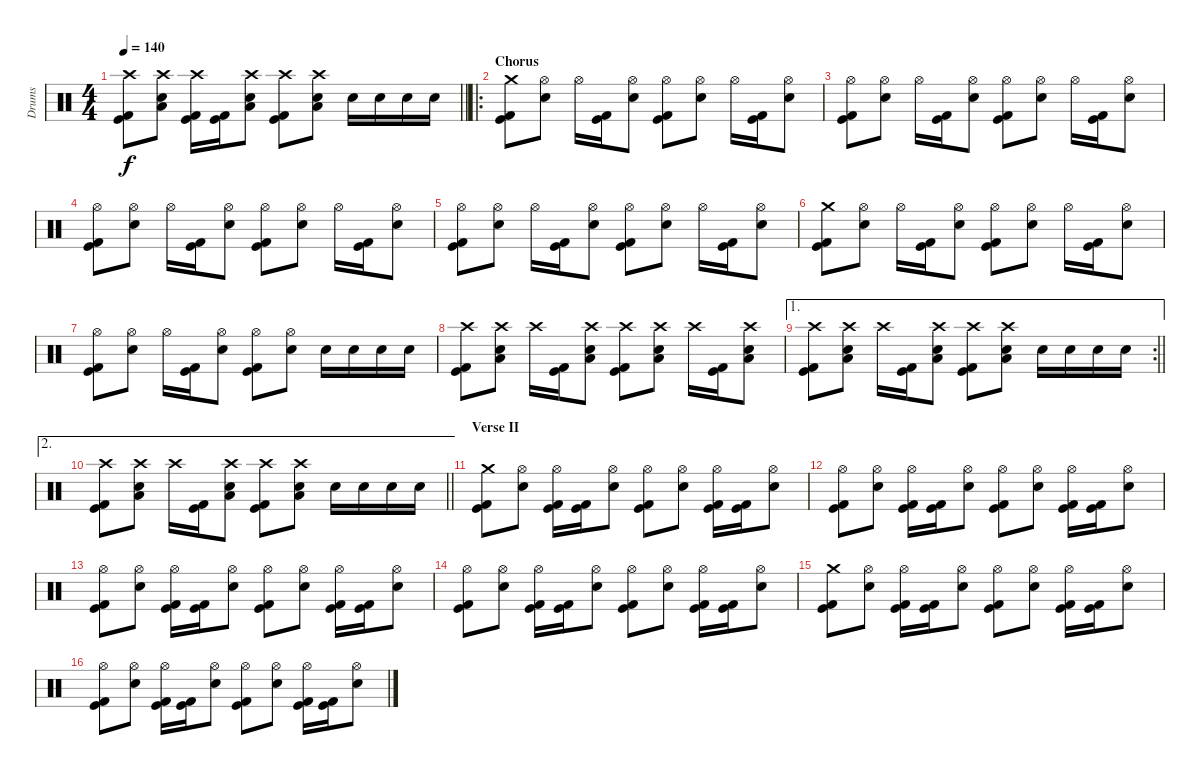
\track ("Drums" "Drums") {instrument percussion}
\staff {score}
\articulation defaults
\ts (4 4)
\tempo 140
\clef neutral
\barLineRight lightlight
\ks c
("Crash high (hit)" "Kick (hit)" "Kick (hit) 2").8{dy f} ("Crash high (hit)" "Electric Snare (hit)" "Low Floor Tom (hit)").8 ("Crash high (hit)" "Kick (hit)" "Kick (hit) 2").16 ("Kick (hit)" "Kick (hit) 2").16 ("Crash high (hit)" "Electric Snare (hit)" "Low Floor Tom (hit)").8 ("Crash high (hit)" "Kick (hit)" "Kick (hit) 2").8 ("Crash high (hit)" "Electric Snare (hit)" "Low Floor Tom (hit)").8 "Electric Snare (hit)".16 "Electric Snare (hit)".16 "Electric Snare (hit)".16 "Electric Snare (hit)".16 |
\ro
\section ("" "Chorus")
("Crash medium (hit)" "Kick (hit)" "Kick (hit) 2").8 ("Hi-Hat (open)" "Electric Snare (hit)").8 "Hi-Hat (open)".16 ("Kick (hit)" "Kick (hit) 2").16 ("Hi-Hat (open)" "Electric Snare (hit)").8 ("Hi-Hat (open)" "Kick (hit)" "Kick (hit) 2").8 ("Hi-Hat (open)" "Electric Snare (hit)").8 "Hi-Hat (open)".16 ("Kick (hit)" "Kick (hit) 2").16 ("Hi-Hat (open)" "Electric Snare (hit)").8 |
("Hi-Hat (open)" "Kick (hit)" "Kick (hit) 2").8 ("Hi-Hat (open)" "Electric Snare (hit)").8 "Hi-Hat (open)".16 ("Kick (hit)" "Kick (hit) 2").16 ("Hi-Hat (open)" "Electric Snare (hit)").8 ("Hi-Hat (open)" "Kick (hit)" "Kick (hit) 2").8 ("Hi-Hat (open)" "Electric Snare (hit)").8 "Hi-Hat (open)".16 ("Kick (hit)" "Kick (hit) 2").16 ("Hi-Hat (open)" "Electric Snare (hit)").8 |
("Hi-Hat (open)" "Kick (hit)" "Kick (hit) 2").8 ("Hi-Hat (open)" "Electric Snare (hit)").8 "Hi-Hat (open)".16 ("Kick (hit)" "Kick (hit) 2").16 ("Hi-Hat (open)" "Electric Snare (hit)").8 ("Hi-Hat (open)" "Kick (hit)" "Kick (hit) 2").8 ("Hi-Hat (open)" "Electric Snare (hit)").8 "Hi-Hat (open)".16 ("Kick (hit)" "Kick (hit) 2").16 ("Hi-Hat (open)" "Electric Snare (hit)").8 |
("Hi-Hat (open)" "Kick (hit)" "Kick (hit) 2").8 ("Hi-Hat (open)" "Electric Snare (hit)").8 "Hi-Hat (open)".16 ("Kick (hit)" "Kick (hit) 2").16 ("Hi-Hat (open)" "Electric Snare (hit)").8 ("Hi-Hat (open)" "Kick (hit)" "Kick (hit) 2").8 ("Hi-Hat (open)" "Electric Snare (hit)").8 "Hi-Hat (open)".16 ("Kick (hit)" "Kick (hit) 2").16 ("Hi-Hat (open)" "Electric Snare (hit)").8 |
("Crash medium (hit)" "Kick (hit)" "Kick (hit) 2").8 ("Hi-Hat (open)" "Electric Snare (hit)").8 "Hi-Hat (open)".16 ("Kick (hit)" "Kick (hit) 2").16 ("Hi-Hat (open)" "Electric Snare (hit)").8 ("Hi-Hat (open)" "Kick (hit)" "Kick (hit) 2").8 ("Hi-Hat (open)" "Electric Snare (hit)").8 "Hi-Hat (open)".16 ("Kick (hit)" "Kick (hit) 2").16 ("Hi-Hat (open)" "Electric Snare (hit)").8 |
("Hi-Hat (open)" "Kick (hit)" "Kick (hit) 2").8 ("Hi-Hat (open)" "Electric Snare (hit)").8 "Hi-Hat (open)".16 ("Kick (hit)" "Kick (hit) 2").16 ("Hi-Hat (open)" "Electric Snare (hit)").8 ("Hi-Hat (open)" "Kick (hit)" "Kick (hit) 2").8 ("Hi-Hat (open)" "Electric Snare (hit)").8 "Electric Snare (hit)".16 "Electric Snare (hit)".16 "Electric Snare (hit)".16 "Electric Snare (hit)".16 |
("Crash high (hit)" "Kick (hit)" "Kick (hit) 2").8 ("Crash high (hit)" "Electric Snare (hit)" "Low Floor Tom (hit)").8 "Crash high (hit)".16 ("Kick (hit)" "Kick (hit) 2").16 ("Crash high (hit)" "Electric Snare (hit)" "Low Floor Tom (hit)").8 ("Crash high (hit)" "Kick (hit)" "Kick (hit) 2").8 ("Crash high (hit)" "Electric Snare (hit)" "Low Floor Tom (hit)").8 "Crash high (hit)".16 ("Kick (hit)" "Kick (hit) 2").16 ("Crash high (hit)" "Electric Snare (hit)" "Low Floor Tom (hit)").8 |
\ae 1
\rc 2
\barLineRight lightlight
("Crash high (hit)" "Kick (hit)" "Kick (hit) 2").8 ("Crash high (hit)" "Electric Snare (hit)" "Low Floor Tom (hit)").8 "Crash high (hit)".16 ("Kick (hit)" "Kick (hit) 2").16 ("Crash high (hit)" "Electric Snare (hit)" "Low Floor Tom (hit)").8 ("Crash high (hit)" "Kick (hit)" "Kick (hit) 2").8 ("Crash high (hit)" "Electric Snare (hit)" "Low Floor Tom (hit)").8 "Electric Snare (hit)".16 "Electric Snare (hit)".16 "Electric Snare (hit)".16 "Electric Snare (hit)".16 |
\ae 2
\barLineRight lightlight
("Crash high (hit)" "Kick (hit)" "Kick (hit) 2").8 ("Crash high (hit)" "Electric Snare (hit)" "Low Floor Tom (hit)").8 "Crash high (hit)".16 ("Kick (hit)" "Kick (hit) 2").16 ("Crash high (hit)" "Electric Snare (hit)" "Low Floor Tom (hit)").8 ("Crash high (hit)" "Kick (hit)" "Kick (hit) 2").8 ("Crash high (hit)" "Electric Snare (hit)" "Low Floor Tom (hit)").8 "Electric Snare (hit)".16 "Electric Snare (hit)".16 "Electric Snare (hit)".16 "Electric Snare (hit)".16 |
\section ("" "Verse II")
("Crash medium (hit)" "Kick (hit)" "Kick (hit) 2").8 ("Hi-Hat (open)" "Electric Snare (hit)").8 ("Hi-Hat (open)" "Kick (hit)" "Kick (hit) 2").16 ("Kick (hit)" "Kick (hit) 2").16 ("Hi-Hat (open)" "Electric Snare (hit)").8 ("Hi-Hat (open)" "Kick (hit)" "Kick (hit) 2").8 ("Hi-Hat (open)" "Electric Snare (hit)").8 ("Hi-Hat (open)" "Kick (hit)" "Kick (hit) 2").16 ("Kick (hit)" "Kick (hit) 2").16 ("Hi-Hat (open)" "Electric Snare (hit)").8 |
("Hi-Hat (open)" "Kick (hit)" "Kick (hit) 2").8 ("Hi-Hat (open)" "Electric Snare (hit)").8 ("Hi-Hat (open)" "Kick (hit)" "Kick (hit) 2").16 ("Kick (hit)" "Kick (hit) 2").16 ("Hi-Hat (open)" "Electric Snare (hit)").8 ("Hi-Hat (open)" "Kick (hit)" "Kick (hit) 2").8 ("Hi-Hat (open)" "Electric Snare (hit)").8 ("Hi-Hat (open)" "Kick (hit)" "Kick (hit) 2").16 ("Kick (hit)" "Kick (hit) 2").16 ("Hi-Hat (open)" "Electric Snare (hit)").8 |
("Hi-Hat (open)" "Kick (hit)" "Kick (hit) 2").8 ("Hi-Hat (open)" "Electric Snare (hit)").8 ("Hi-Hat (open)" "Kick (hit)" "Kick (hit) 2").16 ("Kick (hit)" "Kick (hit) 2").16 ("Hi-Hat (open)" "Electric Snare (hit)").8 ("Hi-Hat (open)" "Kick (hit)" "Kick (hit) 2").8 ("Hi-Hat (open)" "Electric Snare (hit)").8 ("Hi-Hat (open)" "Kick (hit)" "Kick (hit) 2").16 ("Kick (hit)" "Kick (hit) 2").16 ("Hi-Hat (open)" "Electric Snare (hit)").8 |
("Hi-Hat (open)" "Kick (hit)" "Kick (hit) 2").8 ("Hi-Hat (open)" "Electric Snare (hit)").8 ("Hi-Hat (open)" "Kick (hit)" "Kick (hit) 2").16 ("Kick (hit)" "Kick (hit) 2").16 ("Hi-Hat (open)" "Electric Snare (hit)").8 ("Hi-Hat (open)" "Kick (hit)" "Kick (hit) 2").8 ("Hi-Hat (open)" "Electric Snare (hit)").8 ("Hi-Hat (open)" "Kick (hit)" "Kick (hit) 2").16 ("Kick (hit)" "Kick (hit) 2").16 ("Hi-Hat (open)" "Electric Snare (hit)").8 |
("Crash medium (hit)" "Kick (hit)" "Kick (hit) 2").8 ("Hi-Hat (open)" "Electric Snare (hit)").8 ("Hi-Hat (open)" "Kick (hit)" "Kick (hit) 2").16 ("Kick (hit)" "Kick (hit) 2").16 ("Hi-Hat (open)" "Electric Snare (hit)").8 ("Hi-Hat (open)" "Kick (hit)" "Kick (hit) 2").8 ("Hi-Hat (open)" "Electric Snare (hit)").8 ("Hi-Hat (open)" "Kick (hit)" "Kick (hit) 2").16 ("Kick (hit)" "Kick (hit) 2").16 ("Hi-Hat (open)" "Electric Snare (hit)").8 |
("Hi-Hat (open)" "Kick (hit)" "Kick (hit) 2").8 ("Hi-Hat (open)" "Electric Snare (hit)").8 ("Hi-Hat (open)" "Kick (hit)" "Kick (hit) 2").16 ("Kick (hit)" "Kick (hit) 2").16 ("Hi-Hat (open)" "Electric Snare (hit)").8 ("Hi-Hat (open)" "Kick (hit)" "Kick (hit) 2").8 ("Hi-Hat (open)" "Electric Snare (hit)").8 ("Hi-Hat (open)" "Kick (hit)" "Kick (hit) 2").16 ("Kick (hit)" "Kick (hit) 2").16 ("Hi-Hat (open)" "Electric Snare (hit)").8
